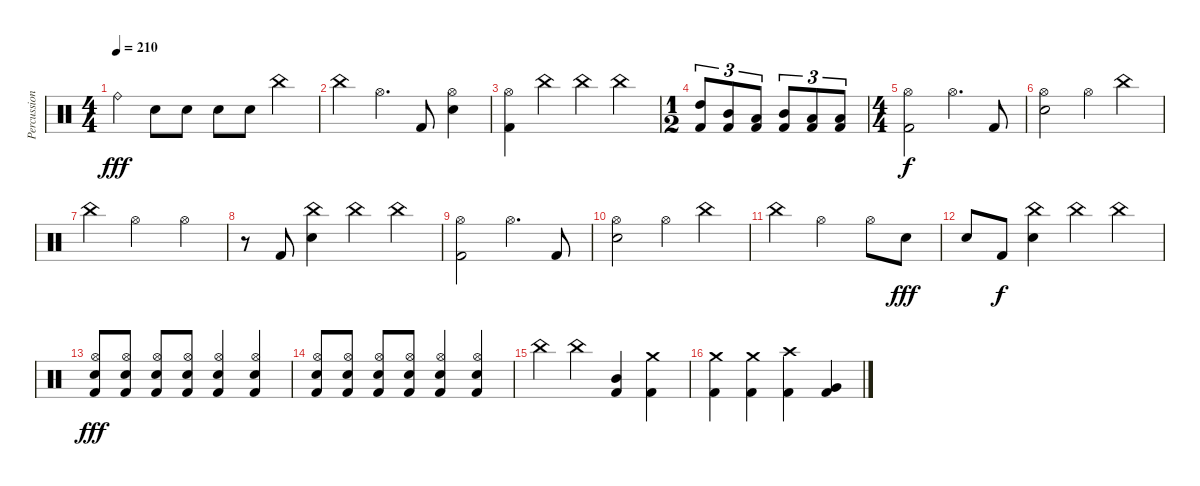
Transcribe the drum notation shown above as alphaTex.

\track ("Percussion" "Percussion") {instrument percussion}
\staff {score}
\articulation defaults
\ts (4 4)
\tempo 210
\clef neutral
\ks c "Ride (bell)".4{dy fff} "Electric Snare (hit)".8 "Electric Snare (hit)".8 "Electric Snare (hit)".8 "Electric Snare (hit)".8 "China (hit)".4
|
"China (hit)".4 "Hi-Hat (open)".4{d} "Kick (hit) 2".8 ("Hi-Hat (open)" "Electric Snare (hit)").4 |
("Hi-Hat (open)" "Kick (hit) 2").4 "China (hit)".4 "China (hit)".4 "China (hit)".4 |
\ts (1 2)
("High Tom (hit)" "Kick (hit) 2").8{tu (3 2)} ("Mid Tom (hit)" "Kick (hit) 2").8{tu (3 2)} ("Low Tom (hit)" "Kick (hit) 2").8{tu (3 2)} ("Mid Tom (hit)" "Kick (hit) 2").8{tu (3 2)} ("Low Tom (hit)" "Kick (hit) 2").8{tu (3 2)} ("Low Floor Tom (hit)" "Kick (hit) 2").8{tu (3 2)} |
\ts (4 4)
("Hi-Hat (open)" "Kick (hit) 2").2{dy f} "Hi-Hat (open)".4{d} "Kick (hit) 2".8 |
("Hi-Hat (open)" "Electric Snare (hit)").2 "Hi-Hat (open)".4 "China (hit)".4 |
"China (hit)".4 "Hi-Hat (open)".2 "Hi-Hat (open)".4 |
r.8 "Kick (hit) 2".8 ("China (hit)" "Electric Snare (hit)").4 "China (hit)".4 "China (hit)".4 |
("Hi-Hat (open)" "Kick (hit) 2").2 "Hi-Hat (open)".4{d} "Kick (hit) 2".8 |
("Hi-Hat (open)" "Electric Snare (hit)").2 "Hi-Hat (open)".4 "China (hit)".4 |
"China (hit)".4 "Hi-Hat (open)".2 "Hi-Hat (open)".8 "Electric Snare (hit)".8{dy fff} |
"Electric Snare (hit)".8 "Kick (hit) 2".8{dy f} ("China (hit)" "Electric Snare (hit)").4 "China (hit)".4 "China (hit)".4 |
("Hi-Hat (open)" "Electric Snare (hit)" "Kick (hit) 2").8{dy fff} ("Hi-Hat (open)" "Electric Snare (hit)" "Kick (hit) 2").8 ("Hi-Hat (open)" "Electric Snare (hit)" "Kick (hit) 2").8 ("Hi-Hat (open)" "Electric Snare (hit)" "Kick (hit) 2").8 ("Hi-Hat (open)" "Electric Snare (hit)" "Kick (hit) 2").4 ("Hi-Hat (open)" "Electric Snare (hit)" "Kick (hit) 2").4 |
("Hi-Hat (open)" "Electric Snare (hit)" "Kick (hit) 2").8 ("Hi-Hat (open)" "Electric Snare (hit)" "Kick (hit) 2").8 ("Hi-Hat (open)" "Electric Snare (hit)" "Kick (hit) 2").8 ("Hi-Hat (open)" "Electric Snare (hit)" "Kick (hit) 2").8 ("Hi-Hat (open)" "Electric Snare (hit)" "Kick (hit) 2").4 ("Hi-Hat (open)" "Electric Snare (hit)" "Kick (hit) 2").4 |
"China (hit)".4 "China (hit)".4 ("Mid Tom (hit)" "Kick (hit) 2").4 ("Crash medium (hit)" "Kick (hit) 2").4 |
("Crash medium (hit)" "Kick (hit) 2").4 ("Crash medium (hit)" "Kick (hit) 2").4 ("Crash high (hit)" "Kick (hit) 2").4 ("Very Low Tom (hit)" "Kick (hit) 2").4
